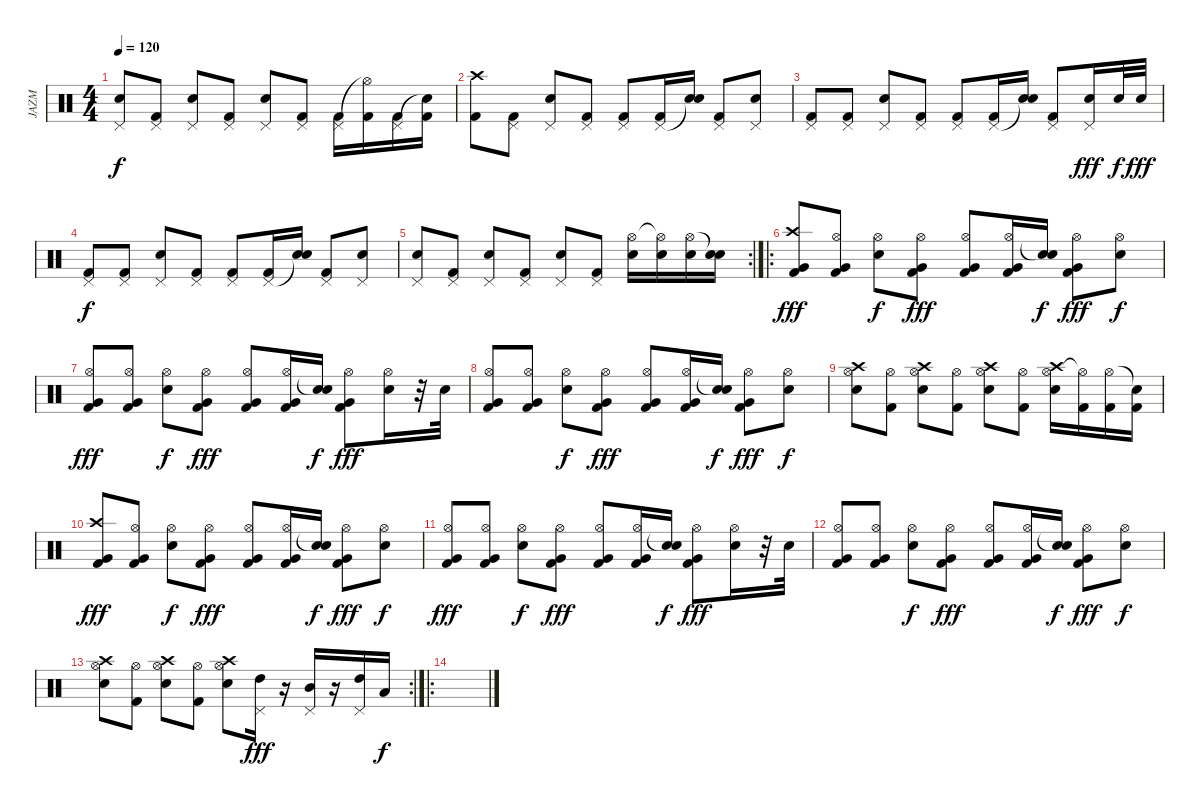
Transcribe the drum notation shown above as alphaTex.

\track ("JAZM" "JAZM") {instrument percussion}
\staff {score}
\articulation defaults
\ts (4 4)
\tempo 120
\clef neutral
\ks c
("Pedal Hi-Hat (hit)" "Electric Snare (hit)").8{dy f} ("Pedal Hi-Hat (hit)" "Kick (hit) 2").8 ("Pedal Hi-Hat (hit)" "Electric Snare (hit)").8 ("Pedal Hi-Hat (hit)" "Kick (hit) 2").8 ("Pedal Hi-Hat (hit)" "Electric Snare (hit)").8 ("Pedal Hi-Hat (hit)" "Kick (hit) 2").8 ("Pedal Hi-Hat (hit)" "Kick (hit) 2").16 ("Hi-Hat (open)"{t} "Kick (hit) 2").16 ("Pedal Hi-Hat (hit)" "Kick (hit) 2").16 ("Snare (hit)"{t} "Kick (hit) 2").16 |
("Crash high (hit)" "Kick (hit) 2").8 ("Pedal Hi-Hat (hit)" "Kick (hit) 2").8 ("Pedal Hi-Hat (hit)" "Electric Snare (hit)").8 ("Pedal Hi-Hat (hit)" "Kick (hit) 2").8 ("Pedal Hi-Hat (hit)" "Kick (hit) 2").8 ("Pedal Hi-Hat (hit)" "Kick (hit) 2").16 ("Snare (hit)"{t} "Electric Snare (hit)").16 ("Pedal Hi-Hat (hit)" "Kick (hit) 2").8 ("Pedal Hi-Hat (hit)" "Electric Snare (hit)").8 |
("Pedal Hi-Hat (hit)" "Kick (hit) 2").8 ("Pedal Hi-Hat (hit)" "Kick (hit) 2").8 ("Pedal Hi-Hat (hit)" "Electric Snare (hit)").8 ("Pedal Hi-Hat (hit)" "Kick (hit) 2").8 ("Pedal Hi-Hat (hit)" "Kick (hit) 2").8 ("Pedal Hi-Hat (hit)" "Kick (hit) 2").16 ("Snare (hit)"{t} "Electric Snare (hit)").16 ("Pedal Hi-Hat (hit)" "Kick (hit) 2").8 ("Pedal Hi-Hat (hit)" "Electric Snare (hit)").16{dy fff} "Electric Snare (hit)".32{dy f} "Electric Snare (hit)".32{dy fff} |
("Pedal Hi-Hat (hit)" "Kick (hit) 2").8{dy f} ("Pedal Hi-Hat (hit)" "Kick (hit) 2").8 ("Pedal Hi-Hat (hit)" "Electric Snare (hit)").8 ("Pedal Hi-Hat (hit)" "Kick (hit) 2").8 ("Pedal Hi-Hat (hit)" "Kick (hit) 2").8 ("Pedal Hi-Hat (hit)" "Kick (hit) 2").16 ("Snare (hit)"{t} "Electric Snare (hit)").16 ("Pedal Hi-Hat (hit)" "Kick (hit) 2").8 ("Pedal Hi-Hat (hit)" "Electric Snare (hit)").8 |
\rc 2
("Pedal Hi-Hat (hit)" "Electric Snare (hit)").8 ("Pedal Hi-Hat (hit)" "Kick (hit) 2").8 ("Pedal Hi-Hat (hit)" "Electric Snare (hit)").8 ("Pedal Hi-Hat (hit)" "Kick (hit) 2").8 ("Pedal Hi-Hat (hit)" "Electric Snare (hit)").8 ("Pedal Hi-Hat (hit)" "Kick (hit) 2").8 ("Hi-Hat (open)" "Electric Snare (hit)").16 ("Hi-Hat (open)"{t} "Electric Snare (hit)").16 ("Hi-Hat (open)" "Electric Snare (hit)").16 ("Snare (hit)"{t} "Electric Snare (hit)").16 |
\ro
("Crash high (hit)" "Very Low Tom (hit)" "Kick (hit) 2").8{dy fff} ("Hi-Hat (open)" "Very Low Tom (hit)" "Kick (hit) 2").8 ("Hi-Hat (open)" "Electric Snare (hit)").8{dy f} ("Hi-Hat (open)" "Very Low Tom (hit)" "Kick (hit) 2").8{dy fff} ("Hi-Hat (open)" "Very Low Tom (hit)" "Kick (hit) 2").8 ("Hi-Hat (open)" "Very Low Tom (hit)" "Kick (hit) 2").16 ("Snare (hit)"{t} "Electric Snare (hit)").16{dy f} ("Hi-Hat (open)" "Very Low Tom (hit)" "Kick (hit) 2").8{dy fff} ("Hi-Hat (open)" "Electric Snare (hit)").8{dy f} |
("Hi-Hat (open)" "Very Low Tom (hit)" "Kick (hit) 2").8{dy fff} ("Hi-Hat (open)" "Very Low Tom (hit)" "Kick (hit) 2").8 ("Hi-Hat (open)" "Electric Snare (hit)").8{dy f} ("Hi-Hat (open)" "Very Low Tom (hit)" "Kick (hit) 2").8{dy fff} ("Hi-Hat (open)" "Very Low Tom (hit)" "Kick (hit) 2").8 ("Hi-Hat (open)" "Very Low Tom (hit)" "Kick (hit) 2").16 ("Snare (hit)"{t} "Electric Snare (hit)").16{dy f} ("Hi-Hat (open)" "Very Low Tom (hit)" "Kick (hit) 2").8{dy fff} ("Hi-Hat (open)" "Electric Snare (hit)").16 r.32 "Electric Snare (hit)".32 |
("Hi-Hat (open)" "Very Low Tom (hit)" "Kick (hit) 2").8 ("Hi-Hat (open)" "Very Low Tom (hit)" "Kick (hit) 2").8 ("Hi-Hat (open)" "Electric Snare (hit)").8{dy f} ("Hi-Hat (open)" "Very Low Tom (hit)" "Kick (hit) 2").8{dy fff} ("Hi-Hat (open)" "Very Low Tom (hit)" "Kick (hit) 2").8 ("Hi-Hat (open)" "Very Low Tom (hit)" "Kick (hit) 2").16 ("Snare (hit)"{t} "Electric Snare (hit)").16{dy f} ("Hi-Hat (open)" "Very Low Tom (hit)" "Kick (hit) 2").8{dy fff} ("Hi-Hat (open)" "Electric Snare (hit)").8{dy f} |
("Hi-Hat (open)" "Crash high (hit)" "Electric Snare (hit)").8 ("Hi-Hat (open)" "Kick (hit) 2").8 ("Hi-Hat (open)" "Crash high (hit)" "Electric Snare (hit)").8 ("Hi-Hat (open)" "Kick (hit) 2").8 ("Hi-Hat (open)" "Crash high (hit)" "Electric Snare (hit)").8 ("Hi-Hat (open)" "Kick (hit) 2").8 ("Hi-Hat (open)" "Crash high (hit)" "Electric Snare (hit)").16 ("Hi-Hat (open)"{t} "Kick (hit) 2").16 ("Hi-Hat (open)" "Kick (hit) 2").16 ("Snare (hit)"{t} "Kick (hit) 2").16 |
("Crash high (hit)" "Very Low Tom (hit)" "Kick (hit) 2").8{dy fff} ("Hi-Hat (open)" "Very Low Tom (hit)" "Kick (hit) 2").8 ("Hi-Hat (open)" "Electric Snare (hit)").8{dy f} ("Hi-Hat (open)" "Very Low Tom (hit)" "Kick (hit) 2").8{dy fff} ("Hi-Hat (open)" "Very Low Tom (hit)" "Kick (hit) 2").8 ("Hi-Hat (open)" "Very Low Tom (hit)" "Kick (hit) 2").16 ("Snare (hit)"{t} "Electric Snare (hit)").16{dy f} ("Hi-Hat (open)" "Very Low Tom (hit)" "Kick (hit) 2").8{dy fff} ("Hi-Hat (open)" "Electric Snare (hit)").8{dy f} |
("Hi-Hat (open)" "Very Low Tom (hit)" "Kick (hit) 2").8{dy fff} ("Hi-Hat (open)" "Very Low Tom (hit)" "Kick (hit) 2").8 ("Hi-Hat (open)" "Electric Snare (hit)").8{dy f} ("Hi-Hat (open)" "Very Low Tom (hit)" "Kick (hit) 2").8{dy fff} ("Hi-Hat (open)" "Very Low Tom (hit)" "Kick (hit) 2").8 ("Hi-Hat (open)" "Very Low Tom (hit)" "Kick (hit) 2").16 ("Snare (hit)"{t} "Electric Snare (hit)").16{dy f} ("Hi-Hat (open)" "Very Low Tom (hit)" "Kick (hit) 2").8{dy fff} ("Hi-Hat (open)" "Electric Snare (hit)").16 r.32 "Electric Snare (hit)".32 |
("Hi-Hat (open)" "Very Low Tom (hit)" "Kick (hit) 2").8 ("Hi-Hat (open)" "Very Low Tom (hit)" "Kick (hit) 2").8 ("Hi-Hat (open)" "Electric Snare (hit)").8{dy f} ("Hi-Hat (open)" "Very Low Tom (hit)" "Kick (hit) 2").8{dy fff} ("Hi-Hat (open)" "Very Low Tom (hit)" "Kick (hit) 2").8 ("Hi-Hat (open)" "Very Low Tom (hit)" "Kick (hit) 2").16 ("Snare (hit)"{t} "Electric Snare (hit)").16{dy f} ("Hi-Hat (open)" "Very Low Tom (hit)" "Kick (hit) 2").8{dy fff} ("Hi-Hat (open)" "Electric Snare (hit)").8{dy f} |
\rc 2
("Hi-Hat (open)" "Crash high (hit)" "Electric Snare (hit)").8 ("Hi-Hat (open)" "Kick (hit) 2").8 ("Hi-Hat (open)" "Crash high (hit)" "Electric Snare (hit)").8 ("Hi-Hat (open)" "Kick (hit) 2").8 ("Hi-Hat (open)" "Crash high (hit)" "Electric Snare (hit)").8 ("Pedal Hi-Hat (hit)" "High Tom (hit)").16{dy fff} r.16 ("Pedal Hi-Hat (hit)" "Mid Tom (hit)").16 r.16 ("Pedal Hi-Hat (hit)" "High Tom (hit)").16 "Low Tom (hit)".16{dy f} |
\ro
